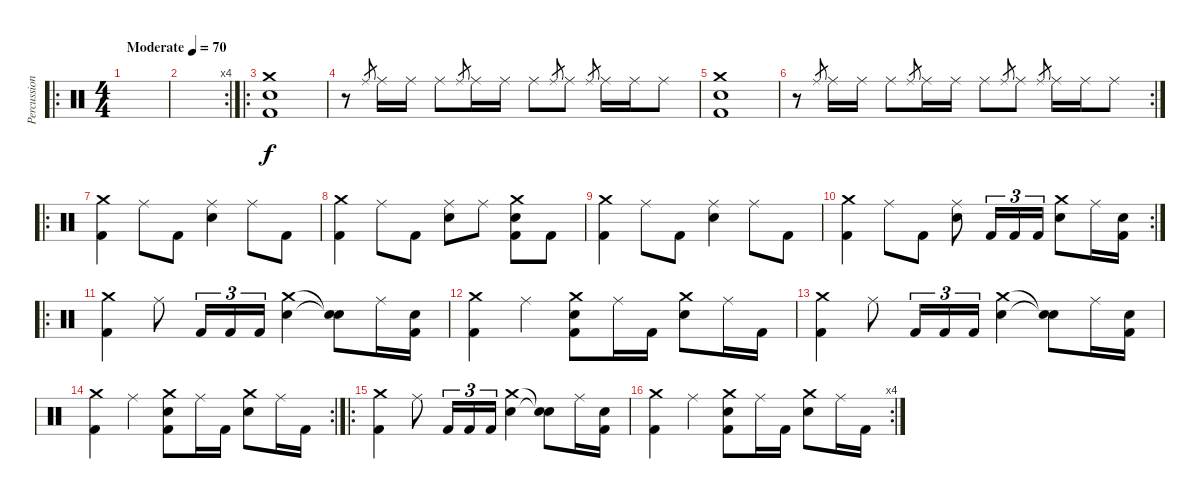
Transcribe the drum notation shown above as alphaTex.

\track ("Percussion" "Percussion") {instrument percussion}
\staff {score}
\articulation defaults
\ro
\ts (4 4)
\tempo (70 "Moderate")
\clef neutral
\ks c
|
\rc 4
|
\ro
("Crash medium (hit)" "Electric Snare (hit)" "Kick (hit) 2").1 |
r.8 "Ride (middle)".8{gr} "Ride (middle)".16 "Ride (middle)".16 "Ride (middle)".8 "Ride (middle)".8{gr} "Ride (middle)".16 "Ride (middle)".16 "Ride (middle)".8 "Ride (middle)".8{gr} "Ride (middle)".8 "Ride (middle)".8{gr} "Ride (middle)".16 "Ride (middle)".16 "Ride (middle)".8 |
("Crash medium (hit)" "Electric Snare (hit)" "Kick (hit) 2").1 |
\rc 2
r.8 "Ride (middle)".8{gr} "Ride (middle)".16 "Ride (middle)".16 "Ride (middle)".8 "Ride (middle)".8{gr} "Ride (middle)".16 "Ride (middle)".16 "Ride (middle)".8 "Ride (middle)".8{gr} "Ride (middle)".8 "Ride (middle)".8{gr} "Ride (middle)".16 "Ride (middle)".16 "Ride (middle)".8 |
\ro
("Crash medium (hit)" "Kick (hit) 2").4 "Ride (middle)".8 "Kick (hit) 2".8 ("Ride (middle)" "Electric Snare (hit)").4 "Ride (middle)".8 "Kick (hit) 2".8 |
("Crash medium (hit)" "Kick (hit) 2").4 "Ride (middle)".8 "Kick (hit) 2".8 ("Ride (middle)" "Electric Snare (hit)").8 "Ride (middle)".8 ("Crash medium (hit)" "Electric Snare (hit)" "Kick (hit) 2").8 "Kick (hit) 2".8 |
("Crash medium (hit)" "Kick (hit) 2").4 "Ride (middle)".8 "Kick (hit) 2".8 ("Ride (middle)" "Electric Snare (hit)").4 "Ride (middle)".8 "Kick (hit) 2".8 |
\rc 2
("Crash medium (hit)" "Kick (hit) 2").4 "Ride (middle)".8 "Kick (hit) 2".8 ("Ride (middle)" "Electric Snare (hit)").8 "Kick (hit) 2".16{tu (3 2)} "Kick (hit) 2".16{tu (3 2)} "Kick (hit) 2".16{tu (3 2)} ("Crash medium (hit)" "Electric Snare (hit)").8 "Ride (middle)".16 ("Electric Snare (hit)" "Kick (hit) 2").16 |
\ro
("Crash medium (hit)" "Kick (hit) 2").4 "Ride (middle)".8 "Kick (hit) 2".16{tu (3 2)} "Kick (hit) 2".16{tu (3 2)} "Kick (hit) 2".16{tu (3 2)} ("Crash medium (hit)" "Electric Snare (hit)").4 ("Snare (hit)"{t} "Snare (hit)"{t}).8 "Ride (middle)".16 ("Electric Snare (hit)" "Kick (hit) 2").16 |
("Crash medium (hit)" "Kick (hit) 2").4 "Ride (middle)".4 ("Crash medium (hit)" "Electric Snare (hit)" "Kick (hit) 2").8 "Ride (middle)".16 "Kick (hit) 2".16 ("Crash medium (hit)" "Electric Snare (hit)").8 "Ride (middle)".16 "Kick (hit) 2".16 |
("Crash medium (hit)" "Kick (hit) 2").4 "Ride (middle)".8 "Kick (hit) 2".16{tu (3 2)} "Kick (hit) 2".16{tu (3 2)} "Kick (hit) 2".16{tu (3 2)} ("Crash medium (hit)" "Electric Snare (hit)").4 ("Snare (hit)"{t} "Snare (hit)"{t}).8 "Ride (middle)".16 ("Electric Snare (hit)" "Kick (hit) 2").16 |
\rc 2
("Crash medium (hit)" "Kick (hit) 2").4 "Ride (middle)".4 ("Crash medium (hit)" "Electric Snare (hit)" "Kick (hit) 2").8 "Ride (middle)".16 "Kick (hit) 2".16 ("Crash medium (hit)" "Electric Snare (hit)").8 "Ride (middle)".16 "Kick (hit) 2".16 |
\ro
("Crash medium (hit)" "Kick (hit) 2").4 "Ride (middle)".8 "Kick (hit) 2".16{tu (3 2)} "Kick (hit) 2".16{tu (3 2)} "Kick (hit) 2".16{tu (3 2)} ("Crash medium (hit)" "Electric Snare (hit)").4 ("Snare (hit)"{t} "Snare (hit)"{t}).8 "Ride (middle)".16 ("Electric Snare (hit)" "Kick (hit) 2").16 |
\rc 4
("Crash medium (hit)" "Kick (hit) 2").4 "Ride (middle)".4 ("Crash medium (hit)" "Electric Snare (hit)" "Kick (hit) 2").8 "Ride (middle)".16 "Kick (hit) 2".16 ("Crash medium (hit)" "Electric Snare (hit)").8 "Ride (middle)".16 "Kick (hit) 2".16
